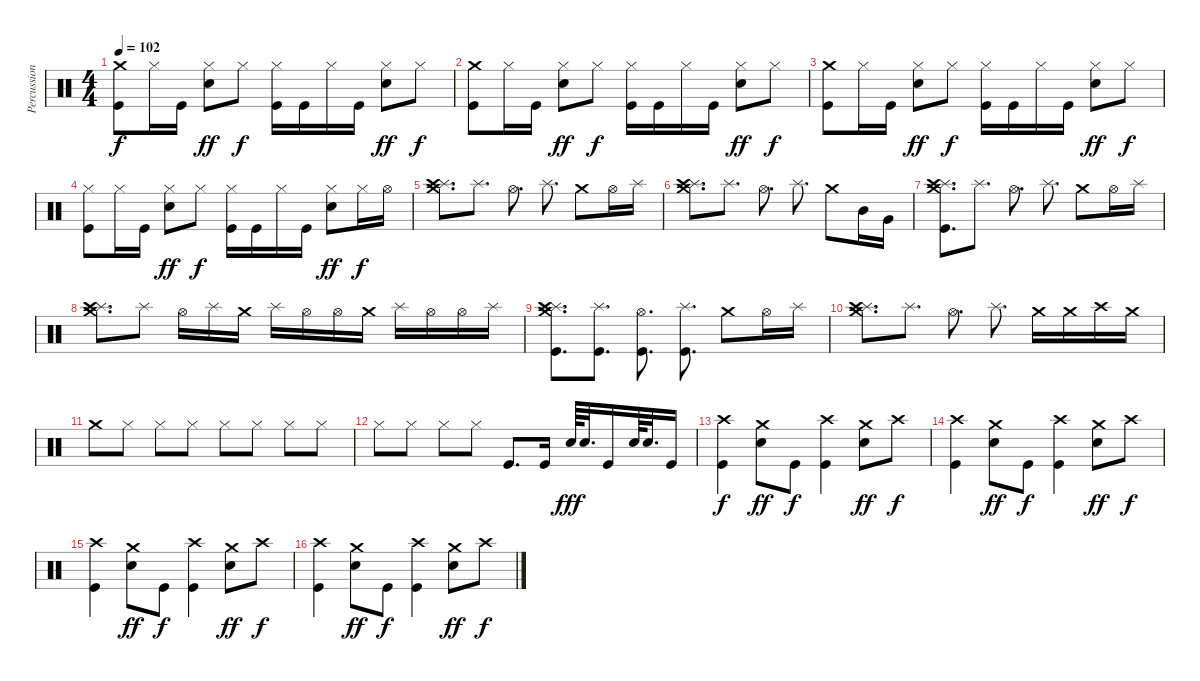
\track ("Percussion" "Percussion") {instrument percussion}
\staff {score}
\articulation defaults
\ts (4 4)
\tempo 102
\clef neutral
\ks c
("Crash medium (hit)" "Kick (hit)").8{dy f} "Hi-Hat (closed)".16 "Kick (hit)".16 ("Hi-Hat (closed)" "Snare (hit) 2").8{dy ff} "Hi-Hat (closed)".8{dy f} ("Hi-Hat (closed)" "Kick (hit)").16 "Kick (hit)".16 "Hi-Hat (closed)".16 "Kick (hit)".16 ("Hi-Hat (closed)" "Snare (hit) 2").8{dy ff} "Hi-Hat (closed)".8{dy f} |
("Crash medium (hit)" "Kick (hit)").8 "Hi-Hat (closed)".16 "Kick (hit)".16 ("Hi-Hat (closed)" "Snare (hit) 2").8{dy ff} "Hi-Hat (closed)".8{dy f} ("Hi-Hat (closed)" "Kick (hit)").16 "Kick (hit)".16 "Hi-Hat (closed)".16 "Kick (hit)".16 ("Hi-Hat (closed)" "Snare (hit) 2").8{dy ff} "Hi-Hat (closed)".8{dy f} |
("Crash medium (hit)" "Kick (hit)").8 "Hi-Hat (closed)".16 "Kick (hit)".16 ("Hi-Hat (closed)" "Snare (hit) 2").8{dy ff} "Hi-Hat (closed)".8{dy f} ("Hi-Hat (closed)" "Kick (hit)").16 "Kick (hit)".16 "Hi-Hat (closed)".16 "Kick (hit)".16 ("Hi-Hat (closed)" "Snare (hit) 2").8{dy ff} "Hi-Hat (closed)".8{dy f} |
("Hi-Hat (closed)" "Kick (hit)").8 "Hi-Hat (closed)".16 "Kick (hit)".16 ("Hi-Hat (closed)" "Snare (hit) 2").8{dy ff} "Hi-Hat (closed)".8{dy f} ("Hi-Hat (closed)" "Kick (hit)").16 "Kick (hit)".16 "Hi-Hat (closed)".16 "Kick (hit)".16 ("Hi-Hat (closed)" "Snare (hit) 2").8{dy ff} "Hi-Hat (closed)".16{dy f} "Hi-Hat (open)".16 |
("Splash (hit)" "Crash medium (hit)" "Crash high (hit)").8{d} "Splash (hit)".8{d} "Hi-Hat (open)".8{d} "Splash (hit)".8{d} "Crash medium (hit)".8 "Hi-Hat (open)".16 "Splash (hit)".16 |
("Splash (hit)" "Crash medium (hit)" "Crash high (hit)").8{d} "Splash (hit)".8{d} "Hi-Hat (open)".8{d} "Splash (hit)".8{d} "Crash medium (hit)".8 "Mid Tom (hit)".16 "Very Low Tom (hit)".16 |
("Splash (hit)" "Crash medium (hit)" "Crash high (hit)" "Kick (hit)").8{d} "Splash (hit)".8{d} "Hi-Hat (open)".8{d} "Splash (hit)".8{d} "Crash medium (hit)".8 "Hi-Hat (open)".16 "Splash (hit)".16 |
("Splash (hit)" "Crash medium (hit)" "Crash high (hit)").8{d} "Splash (hit)".8 "Hi-Hat (open)".16 "Splash (hit)".16 "Crash medium (hit)".16 "Splash (hit)".16 "Hi-Hat (open)".16 "Hi-Hat (open)".16 "Crash medium (hit)".16 "Splash (hit)".16 "Hi-Hat (open)".16 "Hi-Hat (open)".16 "Splash (hit)".16 |
("Splash (hit)" "Crash medium (hit)" "Crash high (hit)" "Kick (hit)").8{d} ("Splash (hit)" "Kick (hit)").8{d} ("Hi-Hat (open)" "Kick (hit)").8{d} ("Splash (hit)" "Kick (hit)").8{d} "Crash medium (hit)".8 "Hi-Hat (open)".16 "Splash (hit)".16 |
("Splash (hit)" "Crash medium (hit)" "Crash high (hit)").8{d} "Splash (hit)".8{d} "Hi-Hat (open)".8{d} "Splash (hit)".8{d} "Crash medium (hit)".16 "Crash medium (hit)".16 "Crash high (hit)".16 "Crash medium (hit)".16 |
"Crash medium (hit)".8 "Hi-Hat (closed)".8 "Hi-Hat (closed)".8 "Hi-Hat (closed)".8 "Hi-Hat (closed)".8 "Hi-Hat (closed)".8 "Hi-Hat (closed)".8 "Hi-Hat (closed)".8 |
"Hi-Hat (closed)".8 "Hi-Hat (closed)".8 "Hi-Hat (closed)".8 "Hi-Hat (closed)".8 "Kick (hit)".8{d} "Kick (hit)".16 "Snare (hit) 2".64{dy fff} "Snare (hit) 2".32{d} "Kick (hit)".16 "Snare (hit) 2".64 "Snare (hit) 2".32{d} "Kick (hit)".16 |
("Crash high (hit)" "Kick (hit)").4{dy f volume 12} ("Crash medium (hit)" "Snare (hit) 2").8{dy ff} "Kick (hit)".8{dy f} ("Crash high (hit)" "Kick (hit)").4 ("Crash medium (hit)" "Snare (hit) 2").8{dy ff} "Crash high (hit)".8{dy f} |
("Crash high (hit)" "Kick (hit)").4 ("Crash medium (hit)" "Snare (hit) 2").8{dy ff} "Kick (hit)".8{dy f} ("Crash high (hit)" "Kick (hit)").4 ("Crash medium (hit)" "Snare (hit) 2").8{dy ff} "Crash high (hit)".8{dy f} |
("Crash high (hit)" "Kick (hit)").4 ("Crash medium (hit)" "Snare (hit) 2").8{dy ff} "Kick (hit)".8{dy f} ("Crash high (hit)" "Kick (hit)").4 ("Crash medium (hit)" "Snare (hit) 2").8{dy ff} "Crash high (hit)".8{dy f} |
("Crash high (hit)" "Kick (hit)").4 ("Crash medium (hit)" "Snare (hit) 2").8{dy ff} "Kick (hit)".8{dy f} ("Crash high (hit)" "Kick (hit)").4 ("Crash medium (hit)" "Snare (hit) 2").8{dy ff} "Crash high (hit)".8{dy f}
